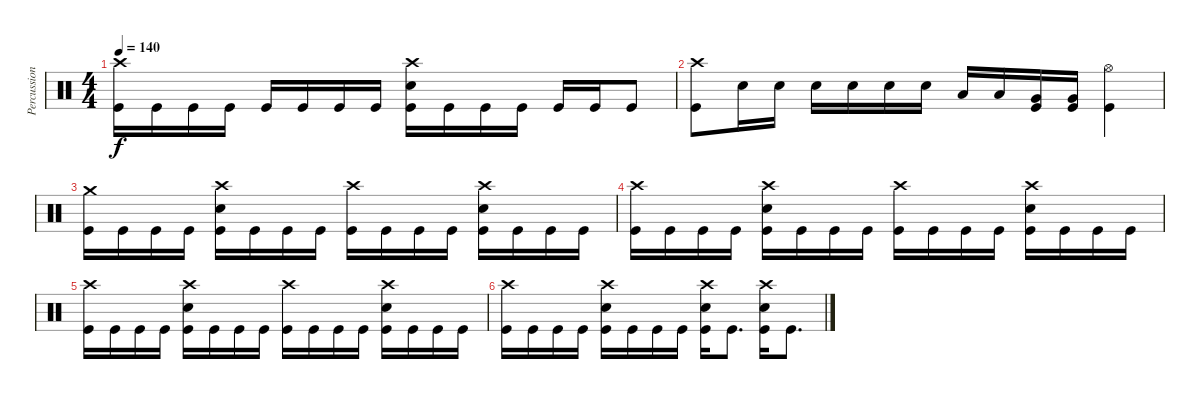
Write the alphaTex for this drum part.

\track ("Percussion" "Percussion") {instrument percussion}
\staff {score}
\articulation defaults
\ts (4 4)
\tempo 140
\clef neutral
\ks c
("Crash high (hit)" "Kick (hit)").16{dy f} "Kick (hit)".16 "Kick (hit)".16 "Kick (hit)".16 "Kick (hit)".16 "Kick (hit)".16 "Kick (hit)".16 "Kick (hit)".16 ("Crash high (hit)" "Electric Snare (hit)" "Kick (hit)").16 "Kick (hit)".16 "Kick (hit)".16 "Kick (hit)".16 "Kick (hit)".16 "Kick (hit)".16 "Kick (hit)".8 |
("Crash high (hit)" "Kick (hit)").8 "Electric Snare (hit)".16 "Electric Snare (hit)".16 "Electric Snare (hit)".16 "Electric Snare (hit)".16 "Electric Snare (hit)".16 "Electric Snare (hit)".16 "Low Tom (hit)".16 "Low Tom (hit)".16 ("Very Low Tom (hit)" "Kick (hit)").16 ("Very Low Tom (hit)" "Kick (hit)").16 ("Hi-Hat (open)" "Kick (hit)").4 |
("Crash medium (hit)" "Kick (hit)").16 "Kick (hit)".16 "Kick (hit)".16 "Kick (hit)".16 ("Crash high (hit)" "Electric Snare (hit)" "Kick (hit)").16 "Kick (hit)".16 "Kick (hit)".16 "Kick (hit)".16 ("Crash high (hit)" "Kick (hit)").16 "Kick (hit)".16 "Kick (hit)".16 "Kick (hit)".16 ("Crash high (hit)" "Electric Snare (hit)" "Kick (hit)").16 "Kick (hit)".16 "Kick (hit)".16 "Kick (hit)".16 |
("Crash high (hit)" "Kick (hit)").16 "Kick (hit)".16 "Kick (hit)".16 "Kick (hit)".16 ("Crash high (hit)" "Electric Snare (hit)" "Kick (hit)").16 "Kick (hit)".16 "Kick (hit)".16 "Kick (hit)".16 ("Crash high (hit)" "Kick (hit)").16 "Kick (hit)".16 "Kick (hit)".16 "Kick (hit)".16 ("Crash high (hit)" "Electric Snare (hit)" "Kick (hit)").16 "Kick (hit)".16 "Kick (hit)".16 "Kick (hit)".16 |
("Crash high (hit)" "Kick (hit)").16 "Kick (hit)".16 "Kick (hit)".16 "Kick (hit)".16 ("Crash high (hit)" "Electric Snare (hit)" "Kick (hit)").16 "Kick (hit)".16 "Kick (hit)".16 "Kick (hit)".16 ("Crash high (hit)" "Kick (hit)").16 "Kick (hit)".16 "Kick (hit)".16 "Kick (hit)".16 ("Crash high (hit)" "Electric Snare (hit)" "Kick (hit)").16 "Kick (hit)".16 "Kick (hit)".16 "Kick (hit)".16 |
("Crash high (hit)" "Kick (hit)").16 "Kick (hit)".16 "Kick (hit)".16 "Kick (hit)".16 ("Crash high (hit)" "Electric Snare (hit)" "Kick (hit)").16 "Kick (hit)".16 "Kick (hit)".16 "Kick (hit)".16 ("Crash high (hit)" "Electric Snare (hit)" "Kick (hit)").16 "Kick (hit)".8{d} ("Crash high (hit)" "Electric Snare (hit)" "Kick (hit)").16 "Kick (hit)".8{d}
